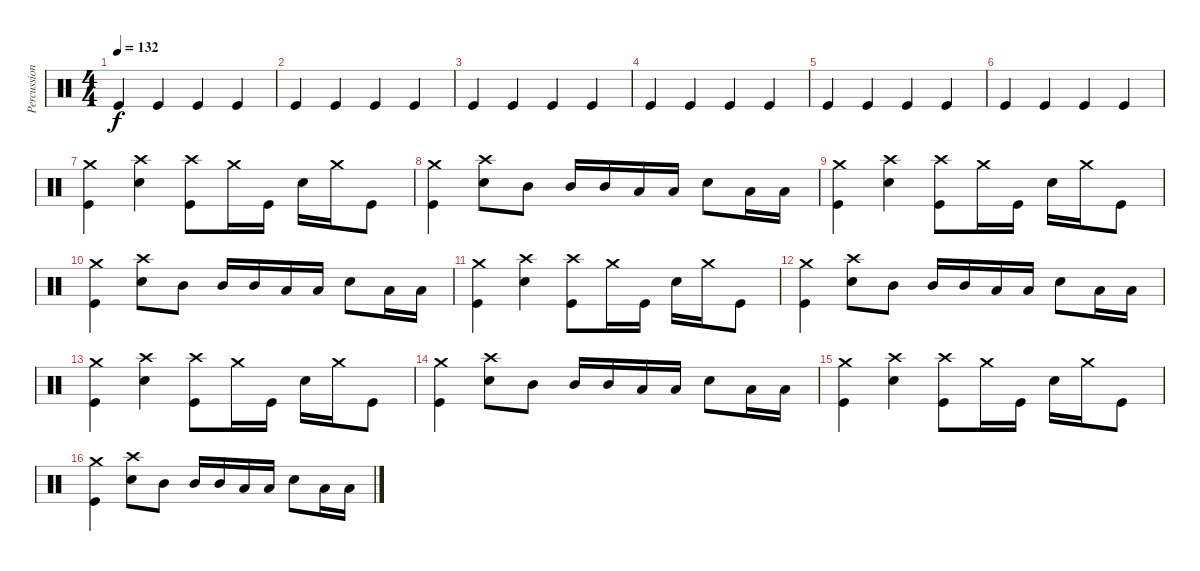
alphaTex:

\track ("Percussion" "Percussion") {instrument percussion}
\staff {score}
\articulation defaults
\ts (4 4)
\tempo 132
\clef neutral
\ks c "Kick (hit)".4{dy f} "Kick (hit)".4 "Kick (hit)".4 "Kick (hit)".4
|
"Kick (hit)".4 "Kick (hit)".4 "Kick (hit)".4 "Kick (hit)".4 |
"Kick (hit)".4 "Kick (hit)".4 "Kick (hit)".4 "Kick (hit)".4 |
"Kick (hit)".4 "Kick (hit)".4 "Kick (hit)".4 "Kick (hit)".4 |
"Kick (hit)".4 "Kick (hit)".4 "Kick (hit)".4 "Kick (hit)".4 |
"Kick (hit)".4 "Kick (hit)".4 "Kick (hit)".4 "Kick (hit)".4 |
("Crash medium (hit)" "Kick (hit)").4 ("Crash high (hit)" "Electric Snare (hit)").4 ("Crash high (hit)" "Kick (hit)").8 "Crash medium (hit)".16 "Kick (hit)".16 "Electric Snare (hit)".16 "Crash medium (hit)".16 "Kick (hit)".8 |
("Crash medium (hit)" "Kick (hit)").4 ("Crash high (hit)" "Electric Snare (hit)").8 "Mid Tom (hit)".8 "Mid Tom (hit)".16 "Mid Tom (hit)".16 "Low Tom (hit)".16 "Low Tom (hit)".16 "Electric Snare (hit)".8 "Low Floor Tom (hit)".16 "Low Floor Tom (hit)".16 |
("Crash medium (hit)" "Kick (hit)").4 ("Crash high (hit)" "Electric Snare (hit)").4 ("Crash high (hit)" "Kick (hit)").8 "Crash medium (hit)".16 "Kick (hit)".16 "Electric Snare (hit)".16 "Crash medium (hit)".16 "Kick (hit)".8 |
("Crash medium (hit)" "Kick (hit)").4 ("Crash high (hit)" "Electric Snare (hit)").8 "Mid Tom (hit)".8 "Mid Tom (hit)".16 "Mid Tom (hit)".16 "Low Tom (hit)".16 "Low Tom (hit)".16 "Electric Snare (hit)".8 "Low Floor Tom (hit)".16 "Low Floor Tom (hit)".16 |
("Crash medium (hit)" "Kick (hit)").4 ("Crash high (hit)" "Electric Snare (hit)").4 ("Crash high (hit)" "Kick (hit)").8 "Crash medium (hit)".16 "Kick (hit)".16 "Electric Snare (hit)".16 "Crash medium (hit)".16 "Kick (hit)".8 |
("Crash medium (hit)" "Kick (hit)").4 ("Crash high (hit)" "Electric Snare (hit)").8 "Mid Tom (hit)".8 "Mid Tom (hit)".16 "Mid Tom (hit)".16 "Low Tom (hit)".16 "Low Tom (hit)".16 "Electric Snare (hit)".8 "Low Floor Tom (hit)".16 "Low Floor Tom (hit)".16 |
("Crash medium (hit)" "Kick (hit)").4 ("Crash high (hit)" "Electric Snare (hit)").4 ("Crash high (hit)" "Kick (hit)").8 "Crash medium (hit)".16 "Kick (hit)".16 "Electric Snare (hit)".16 "Crash medium (hit)".16 "Kick (hit)".8 |
("Crash medium (hit)" "Kick (hit)").4 ("Crash high (hit)" "Electric Snare (hit)").8 "Mid Tom (hit)".8 "Mid Tom (hit)".16 "Mid Tom (hit)".16 "Low Tom (hit)".16 "Low Tom (hit)".16 "Electric Snare (hit)".8 "Low Floor Tom (hit)".16 "Low Floor Tom (hit)".16 |
("Crash medium (hit)" "Kick (hit)").4 ("Crash high (hit)" "Electric Snare (hit)").4 ("Crash high (hit)" "Kick (hit)").8 "Crash medium (hit)".16 "Kick (hit)".16 "Electric Snare (hit)".16 "Crash medium (hit)".16 "Kick (hit)".8 |
("Crash medium (hit)" "Kick (hit)").4 ("Crash high (hit)" "Electric Snare (hit)").8 "Mid Tom (hit)".8 "Mid Tom (hit)".16 "Mid Tom (hit)".16 "Low Tom (hit)".16 "Low Tom (hit)".16 "Electric Snare (hit)".8 "Low Floor Tom (hit)".16 "Low Floor Tom (hit)".16
